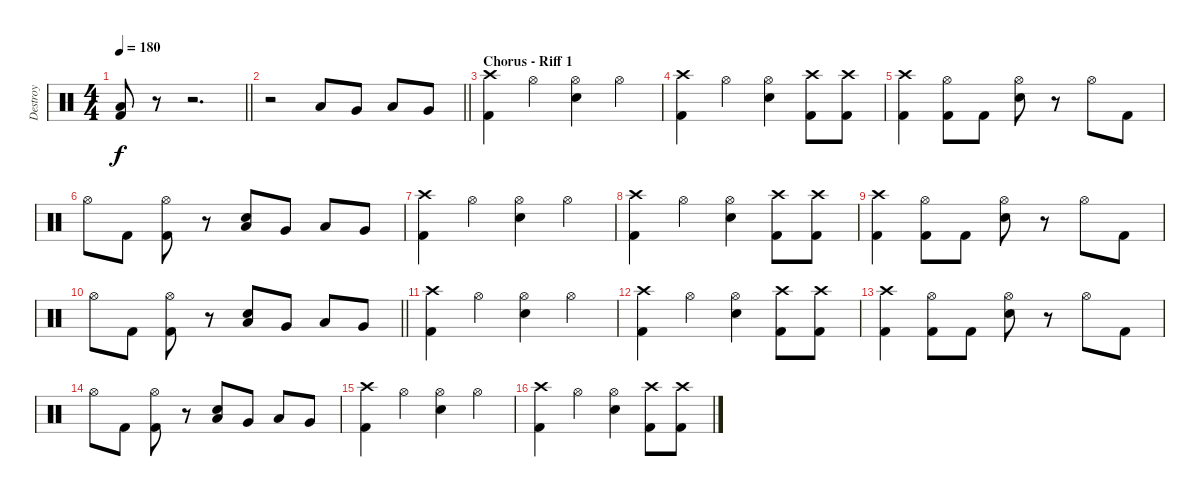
\track ("Destroy" "Destroy") {instrument percussion}
\staff {score}
\articulation defaults
\ts (4 4)
\tempo 180
\clef neutral
\barLineRight lightlight
\ks c
("Low Floor Tom (hit)" "Kick (hit) 2").8{dy f} r.8 r.2{d} |
\barLineRight lightlight
r.2 "Low Tom (hit)".8 "Very Low Tom (hit)".8 "Low Floor Tom (hit)".8 "Very Low Tom (hit)".8 |
\section ("" "Chorus - Riff 1")
("Crash high (hit)" "Kick (hit) 2").4 "Hi-Hat (open)".4 ("Hi-Hat (open)" "Snare (hit) 2").4 "Hi-Hat (open)".4 |
("Crash high (hit)" "Kick (hit) 2").4 "Hi-Hat (open)".4 ("Hi-Hat (open)" "Snare (hit) 2").4 ("Crash high (hit)" "Kick (hit) 2").8 ("Crash high (hit)" "Kick (hit) 2").8 |
("Crash high (hit)" "Kick (hit) 2").4 ("Hi-Hat (open)" "Kick (hit) 2").8 "Kick (hit) 2".8 ("Hi-Hat (open)" "Snare (hit) 2").8 r.8 "Hi-Hat (open)".8 "Kick (hit) 2".8 |
"Hi-Hat (open)".8 "Kick (hit) 2".8 ("Hi-Hat (open)" "Kick (hit) 2").8 r.8 ("Low Tom (hit)" "Snare (hit) 2").8 "Very Low Tom (hit)".8 "Low Floor Tom (hit)".8 "Very Low Tom (hit)".8 |
("Crash high (hit)" "Kick (hit) 2").4 "Hi-Hat (open)".4 ("Hi-Hat (open)" "Snare (hit) 2").4 "Hi-Hat (open)".4 |
("Crash high (hit)" "Kick (hit) 2").4 "Hi-Hat (open)".4 ("Hi-Hat (open)" "Snare (hit) 2").4 ("Crash high (hit)" "Kick (hit) 2").8 ("Crash high (hit)" "Kick (hit) 2").8 |
("Crash high (hit)" "Kick (hit) 2").4 ("Hi-Hat (open)" "Kick (hit) 2").8 "Kick (hit) 2".8 ("Hi-Hat (open)" "Snare (hit) 2").8 r.8 "Hi-Hat (open)".8 "Kick (hit) 2".8 |
\barLineRight lightlight "Hi-Hat (open)".8 "Kick (hit) 2".8
("Hi-Hat (open)" "Kick (hit) 2").8 r.8 ("Low Tom (hit)" "Snare (hit) 2").8 "Very Low Tom (hit)".8 "Low Floor Tom (hit)".8 "Very Low Tom (hit)".8 |
("Crash high (hit)" "Kick (hit) 2").4 "Hi-Hat (open)".4 ("Hi-Hat (open)" "Snare (hit) 2").4 "Hi-Hat (open)".4 |
("Crash high (hit)" "Kick (hit) 2").4 "Hi-Hat (open)".4 ("Hi-Hat (open)" "Snare (hit) 2").4 ("Crash high (hit)" "Kick (hit) 2").8 ("Crash high (hit)" "Kick (hit) 2").8 |
("Crash high (hit)" "Kick (hit) 2").4 ("Hi-Hat (open)" "Kick (hit) 2").8 "Kick (hit) 2".8 ("Hi-Hat (open)" "Snare (hit) 2").8 r.8 "Hi-Hat (open)".8 "Kick (hit) 2".8 |
"Hi-Hat (open)".8 "Kick (hit) 2".8 ("Hi-Hat (open)" "Kick (hit) 2").8 r.8 ("Low Tom (hit)" "Snare (hit) 2").8 "Very Low Tom (hit)".8 "Low Floor Tom (hit)".8 "Very Low Tom (hit)".8 |
("Crash high (hit)" "Kick (hit) 2").4 "Hi-Hat (open)".4 ("Hi-Hat (open)" "Snare (hit) 2").4 "Hi-Hat (open)".4 |
("Crash high (hit)" "Kick (hit) 2").4 "Hi-Hat (open)".4 ("Hi-Hat (open)" "Snare (hit) 2").4 ("Crash high (hit)" "Kick (hit) 2").8 ("Crash high (hit)" "Kick (hit) 2").8
